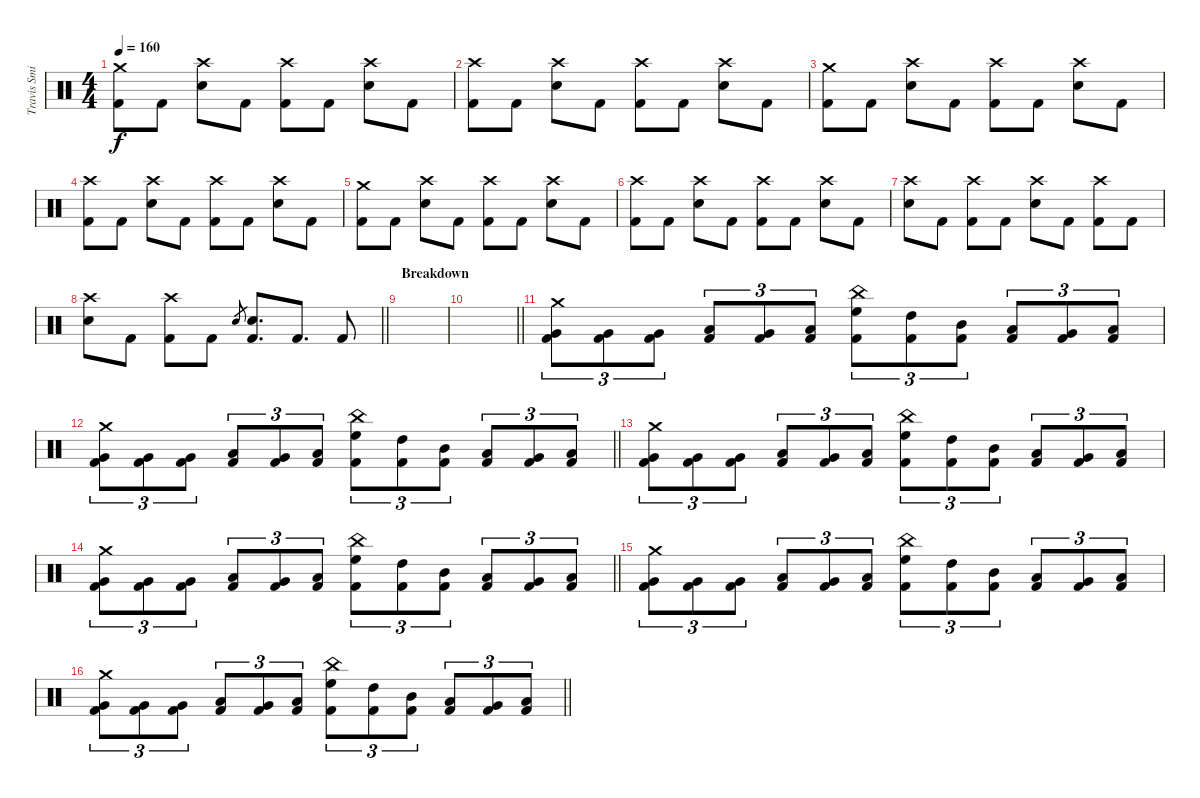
\track ("Travis Smith" "Travis Smi") {instrument percussion}
\staff {score}
\articulation defaults
\ts (4 4)
\tempo 160
\clef neutral
\ks c
("Crash medium (hit)" "Kick (hit) 2").8{dy f} "Kick (hit) 2".8 ("Crash high (hit)" "Electric Snare (hit)").8 "Kick (hit) 2".8 ("Crash high (hit)" "Kick (hit) 2").8 "Kick (hit) 2".8 ("Crash high (hit)" "Electric Snare (hit)").8 "Kick (hit) 2".8 |
("Crash high (hit)" "Kick (hit) 2").8 "Kick (hit) 2".8 ("Crash high (hit)" "Electric Snare (hit)").8 "Kick (hit) 2".8 ("Crash high (hit)" "Kick (hit) 2").8 "Kick (hit) 2".8 ("Crash high (hit)" "Electric Snare (hit)").8 "Kick (hit) 2".8 |
("Crash medium (hit)" "Kick (hit) 2").8 "Kick (hit) 2".8 ("Crash high (hit)" "Electric Snare (hit)").8 "Kick (hit) 2".8 ("Crash high (hit)" "Kick (hit) 2").8 "Kick (hit) 2".8 ("Crash high (hit)" "Electric Snare (hit)").8 "Kick (hit) 2".8 |
("Crash high (hit)" "Kick (hit) 2").8 "Kick (hit) 2".8 ("Crash high (hit)" "Electric Snare (hit)").8 "Kick (hit) 2".8 ("Crash high (hit)" "Kick (hit) 2").8 "Kick (hit) 2".8 ("Crash high (hit)" "Electric Snare (hit)").8 "Kick (hit) 2".8 |
("Crash medium (hit)" "Kick (hit) 2").8 "Kick (hit) 2".8 ("Crash high (hit)" "Electric Snare (hit)").8 "Kick (hit) 2".8 ("Crash high (hit)" "Kick (hit) 2").8 "Kick (hit) 2".8 ("Crash high (hit)" "Electric Snare (hit)").8 "Kick (hit) 2".8 |
("Crash high (hit)" "Kick (hit) 2").8 "Kick (hit) 2".8 ("Crash high (hit)" "Electric Snare (hit)").8 "Kick (hit) 2".8 ("Crash high (hit)" "Kick (hit) 2").8 "Kick (hit) 2".8 ("Crash high (hit)" "Electric Snare (hit)").8 "Kick (hit) 2".8 |
("Crash high (hit)" "Electric Snare (hit)").8 "Kick (hit) 2".8 ("Crash high (hit)" "Kick (hit) 2").8 "Kick (hit) 2".8 ("Crash high (hit)" "Electric Snare (hit)").8 "Kick (hit) 2".8 ("Crash high (hit)" "Kick (hit) 2").8 "Kick (hit) 2".8 |
\barLineRight lightlight
("Crash high (hit)" "Electric Snare (hit)").8 "Kick (hit) 2".8 ("Crash high (hit)" "Kick (hit) 2").8 "Kick (hit) 2".8 "Electric Snare (hit)".8{gr} ("Electric Snare (hit)" "Kick (hit) 2").8{d} "Kick (hit) 2".8{d} "Kick (hit) 2".8 |
\section ("" "Breakdown")
|
\barLineRight lightlight
|
\section ("" "")
("Crash medium (hit)" "Very Low Tom (hit)" "Kick (hit) 2").8{tu (3 2)} ("Very Low Tom (hit)" "Kick (hit) 2").8{tu (3 2)} ("Very Low Tom (hit)" "Kick (hit) 2").8{tu (3 2)} ("Low Tom (hit)" "Kick (hit) 2").8{tu (3 2)} ("Very Low Tom (hit)" "Kick (hit) 2").8{tu (3 2)} ("Low Floor Tom (hit)" "Kick (hit) 2").8{tu (3 2)} ("China (hit)" "High Floor Tom (hit)" "Kick (hit) 2").8{tu (3 2)} ("High Tom (hit)" "Kick (hit) 2").8{tu (3 2)} ("Mid Tom (hit)" "Kick (hit) 2").8{tu (3 2)} ("Low Tom (hit)" "Kick (hit) 2").8{tu (3 2)} ("Very Low Tom (hit)" "Kick (hit) 2").8{tu (3 2)} ("Low Floor Tom (hit)" "Kick (hit) 2").8{tu (3 2)} |
\barLineRight lightlight
("Crash medium (hit)" "Very Low Tom (hit)" "Kick (hit) 2").8{tu (3 2)} ("Very Low Tom (hit)" "Kick (hit) 2").8{tu (3 2)} ("Very Low Tom (hit)" "Kick (hit) 2").8{tu (3 2)} ("Low Tom (hit)" "Kick (hit) 2").8{tu (3 2)} ("Very Low Tom (hit)" "Kick (hit) 2").8{tu (3 2)} ("Low Floor Tom (hit)" "Kick (hit) 2").8{tu (3 2)} ("China (hit)" "High Floor Tom (hit)" "Kick (hit) 2").8{tu (3 2)} ("High Tom (hit)" "Kick (hit) 2").8{tu (3 2)} ("Mid Tom (hit)" "Kick (hit) 2").8{tu (3 2)} ("Low Tom (hit)" "Kick (hit) 2").8{tu (3 2)} ("Very Low Tom (hit)" "Kick (hit) 2").8{tu (3 2)} ("Low Floor Tom (hit)" "Kick (hit) 2").8{tu (3 2)} |
("Crash medium (hit)" "Very Low Tom (hit)" "Kick (hit) 2").8{tu (3 2)} ("Very Low Tom (hit)" "Kick (hit) 2").8{tu (3 2)} ("Very Low Tom (hit)" "Kick (hit) 2").8{tu (3 2)} ("Low Tom (hit)" "Kick (hit) 2").8{tu (3 2)} ("Very Low Tom (hit)" "Kick (hit) 2").8{tu (3 2)} ("Low Floor Tom (hit)" "Kick (hit) 2").8{tu (3 2)} ("China (hit)" "High Floor Tom (hit)" "Kick (hit) 2").8{tu (3 2)} ("High Tom (hit)" "Kick (hit) 2").8{tu (3 2)} ("Mid Tom (hit)" "Kick (hit) 2").8{tu (3 2)} ("Low Tom (hit)" "Kick (hit) 2").8{tu (3 2)} ("Very Low Tom (hit)" "Kick (hit) 2").8{tu (3 2)} ("Low Floor Tom (hit)" "Kick (hit) 2").8{tu (3 2)} |
\barLineRight lightlight
("Crash medium (hit)" "Very Low Tom (hit)" "Kick (hit) 2").8{tu (3 2)} ("Very Low Tom (hit)" "Kick (hit) 2").8{tu (3 2)} ("Very Low Tom (hit)" "Kick (hit) 2").8{tu (3 2)} ("Low Tom (hit)" "Kick (hit) 2").8{tu (3 2)} ("Very Low Tom (hit)" "Kick (hit) 2").8{tu (3 2)} ("Low Floor Tom (hit)" "Kick (hit) 2").8{tu (3 2)} ("China (hit)" "High Floor Tom (hit)" "Kick (hit) 2").8{tu (3 2)} ("High Tom (hit)" "Kick (hit) 2").8{tu (3 2)} ("Mid Tom (hit)" "Kick (hit) 2").8{tu (3 2)} ("Low Tom (hit)" "Kick (hit) 2").8{tu (3 2)} ("Very Low Tom (hit)" "Kick (hit) 2").8{tu (3 2)} ("Low Floor Tom (hit)" "Kick (hit) 2").8{tu (3 2)} |
("Crash medium (hit)" "Very Low Tom (hit)" "Kick (hit) 2").8{tu (3 2)} ("Very Low Tom (hit)" "Kick (hit) 2").8{tu (3 2)} ("Very Low Tom (hit)" "Kick (hit) 2").8{tu (3 2)} ("Low Tom (hit)" "Kick (hit) 2").8{tu (3 2)} ("Very Low Tom (hit)" "Kick (hit) 2").8{tu (3 2)} ("Low Floor Tom (hit)" "Kick (hit) 2").8{tu (3 2)} ("China (hit)" "High Floor Tom (hit)" "Kick (hit) 2").8{tu (3 2)} ("High Tom (hit)" "Kick (hit) 2").8{tu (3 2)} ("Mid Tom (hit)" "Kick (hit) 2").8{tu (3 2)} ("Low Tom (hit)" "Kick (hit) 2").8{tu (3 2)} ("Very Low Tom (hit)" "Kick (hit) 2").8{tu (3 2)} ("Low Floor Tom (hit)" "Kick (hit) 2").8{tu (3 2)} |
\barLineRight lightlight
("Crash medium (hit)" "Very Low Tom (hit)" "Kick (hit) 2").8{tu (3 2)} ("Very Low Tom (hit)" "Kick (hit) 2").8{tu (3 2)} ("Very Low Tom (hit)" "Kick (hit) 2").8{tu (3 2)} ("Low Tom (hit)" "Kick (hit) 2").8{tu (3 2)} ("Very Low Tom (hit)" "Kick (hit) 2").8{tu (3 2)} ("Low Floor Tom (hit)" "Kick (hit) 2").8{tu (3 2)} ("China (hit)" "High Floor Tom (hit)" "Kick (hit) 2").8{tu (3 2)} ("High Tom (hit)" "Kick (hit) 2").8{tu (3 2)} ("Mid Tom (hit)" "Kick (hit) 2").8{tu (3 2)} ("Low Tom (hit)" "Kick (hit) 2").8{tu (3 2)} ("Very Low Tom (hit)" "Kick (hit) 2").8{tu (3 2)} ("Low Floor Tom (hit)" "Kick (hit) 2").8{tu (3 2)}
